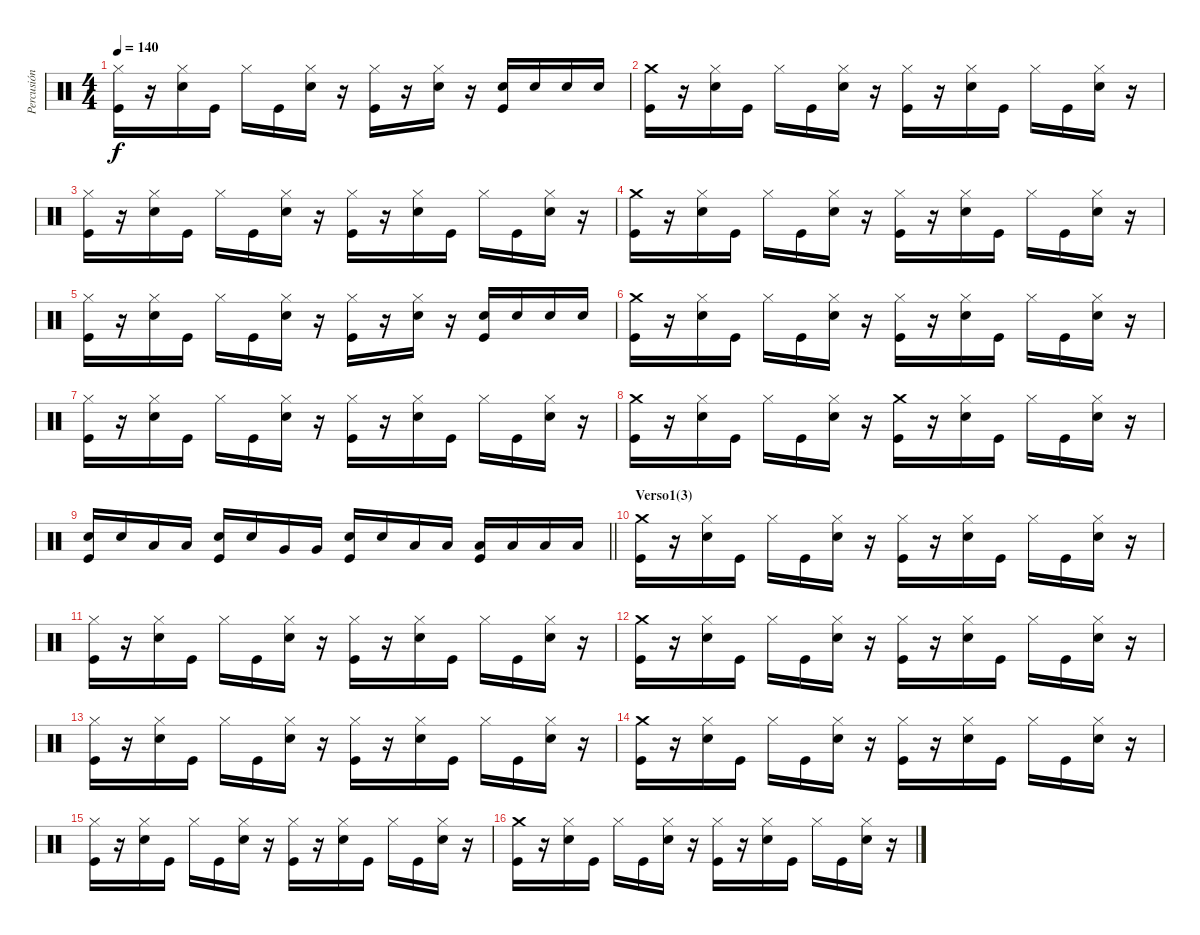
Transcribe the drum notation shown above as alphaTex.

\track ("Percusión" "Percusión") {instrument percussion}
\staff {score}
\articulation defaults
\ts (4 4)
\tempo 140
\clef neutral
\ks c
("Hi-Hat (closed)" "Kick (hit)").16{dy f} r.16 ("Hi-Hat (closed)" "Snare (hit) 2").16 "Kick (hit)".16 "Hi-Hat (closed)".16 "Kick (hit)".16 ("Hi-Hat (closed)" "Snare (hit) 2").16 r.16 ("Hi-Hat (closed)" "Kick (hit)").16 r.16 ("Hi-Hat (closed)" "Snare (hit) 2").16 r.16 ("Snare (hit) 2" "Kick (hit)").16 "Snare (hit) 2".16 "Snare (hit) 2".16 "Snare (hit) 2".16 |
("Crash medium (hit)" "Kick (hit)").16 r.16 ("Hi-Hat (closed)" "Snare (hit) 2").16 "Kick (hit)".16 "Hi-Hat (closed)".16 "Kick (hit)".16 ("Hi-Hat (closed)" "Snare (hit) 2").16 r.16 ("Hi-Hat (closed)" "Kick (hit)").16 r.16 ("Hi-Hat (closed)" "Snare (hit) 2").16 "Kick (hit)".16 "Hi-Hat (closed)".16 "Kick (hit)".16 ("Hi-Hat (closed)" "Snare (hit) 2").16 r.16 |
("Hi-Hat (closed)" "Kick (hit)").16 r.16 ("Hi-Hat (closed)" "Snare (hit) 2").16 "Kick (hit)".16 "Hi-Hat (closed)".16 "Kick (hit)".16 ("Hi-Hat (closed)" "Snare (hit) 2").16 r.16 ("Hi-Hat (closed)" "Kick (hit)").16 r.16 ("Hi-Hat (closed)" "Snare (hit) 2").16 "Kick (hit)".16 "Hi-Hat (closed)".16 "Kick (hit)".16 ("Hi-Hat (closed)" "Snare (hit) 2").16 r.16 |
("Crash medium (hit)" "Kick (hit)").16 r.16 ("Hi-Hat (closed)" "Snare (hit) 2").16 "Kick (hit)".16 "Hi-Hat (closed)".16 "Kick (hit)".16 ("Hi-Hat (closed)" "Snare (hit) 2").16 r.16 ("Hi-Hat (closed)" "Kick (hit)").16 r.16 ("Hi-Hat (closed)" "Snare (hit) 2").16 "Kick (hit)".16 "Hi-Hat (closed)".16 "Kick (hit)".16 ("Hi-Hat (closed)" "Snare (hit) 2").16 r.16 |
("Hi-Hat (closed)" "Kick (hit)").16 r.16 ("Hi-Hat (closed)" "Snare (hit) 2").16 "Kick (hit)".16 "Hi-Hat (closed)".16 "Kick (hit)".16 ("Hi-Hat (closed)" "Snare (hit) 2").16 r.16 ("Hi-Hat (closed)" "Kick (hit)").16 r.16 ("Hi-Hat (closed)" "Snare (hit) 2").16 r.16 ("Snare (hit) 2" "Kick (hit)").16 "Snare (hit) 2".16 "Snare (hit) 2".16 "Snare (hit) 2".16 |
("Crash medium (hit)" "Kick (hit)").16 r.16 ("Hi-Hat (closed)" "Snare (hit) 2").16 "Kick (hit)".16 "Hi-Hat (closed)".16 "Kick (hit)".16 ("Hi-Hat (closed)" "Snare (hit) 2").16 r.16 ("Hi-Hat (closed)" "Kick (hit)").16 r.16 ("Hi-Hat (closed)" "Snare (hit) 2").16 "Kick (hit)".16 "Hi-Hat (closed)".16 "Kick (hit)".16 ("Hi-Hat (closed)" "Snare (hit) 2").16 r.16 |
("Hi-Hat (closed)" "Kick (hit)").16 r.16 ("Hi-Hat (closed)" "Snare (hit) 2").16 "Kick (hit)".16 "Hi-Hat (closed)".16 "Kick (hit)".16 ("Hi-Hat (closed)" "Snare (hit) 2").16 r.16 ("Hi-Hat (closed)" "Kick (hit)").16 r.16 ("Hi-Hat (closed)" "Snare (hit) 2").16 "Kick (hit)".16 "Hi-Hat (closed)".16 "Kick (hit)".16 ("Hi-Hat (closed)" "Snare (hit) 2").16 r.16 |
("Crash medium (hit)" "Kick (hit)").16 r.16 ("Hi-Hat (closed)" "Snare (hit) 2").16 "Kick (hit)".16 "Hi-Hat (closed)".16 "Kick (hit)".16 ("Hi-Hat (closed)" "Snare (hit) 2").16 r.16 ("Crash medium (hit)" "Kick (hit)").16 r.16 ("Hi-Hat (closed)" "Snare (hit) 2").16 "Kick (hit)".16 "Hi-Hat (closed)".16 "Kick (hit)".16 ("Hi-Hat (closed)" "Snare (hit) 2").16 r.16 |
\barLineRight lightlight
("Snare (hit) 2" "Kick (hit)").16 "Snare (hit) 2".16 "Low Tom (hit)".16 "Low Tom (hit)".16 ("Snare (hit) 2" "Kick (hit)").16 "Snare (hit) 2".16 "Very Low Tom (hit)".16 "Very Low Tom (hit)".16 ("Snare (hit) 2" "Kick (hit)").16 "Snare (hit) 2".16 "Low Floor Tom (hit)".16 "Low Floor Tom (hit)".16 ("Low Floor Tom (hit)" "Kick (hit)").16 "Low Floor Tom (hit)".16 "Low Floor Tom (hit)".16 "Low Floor Tom (hit)".16 |
\section ("" "Verso1(3)")
("Crash medium (hit)" "Kick (hit)").16 r.16 ("Hi-Hat (closed)" "Snare (hit) 2").16 "Kick (hit)".16 "Hi-Hat (closed)".16 "Kick (hit)".16 ("Hi-Hat (closed)" "Snare (hit) 2").16 r.16 ("Hi-Hat (closed)" "Kick (hit)").16 r.16 ("Hi-Hat (closed)" "Snare (hit) 2").16 "Kick (hit)".16 "Hi-Hat (closed)".16 "Kick (hit)".16 ("Hi-Hat (closed)" "Snare (hit) 2").16 r.16 |
("Hi-Hat (closed)" "Kick (hit)").16 r.16 ("Hi-Hat (closed)" "Snare (hit) 2").16 "Kick (hit)".16 "Hi-Hat (closed)".16 "Kick (hit)".16 ("Hi-Hat (closed)" "Snare (hit) 2").16 r.16 ("Hi-Hat (closed)" "Kick (hit)").16 r.16 ("Hi-Hat (closed)" "Snare (hit) 2").16 "Kick (hit)".16 "Hi-Hat (closed)".16 "Kick (hit)".16 ("Hi-Hat (closed)" "Snare (hit) 2").16 r.16 |
("Crash medium (hit)" "Kick (hit)").16 r.16 ("Hi-Hat (closed)" "Snare (hit) 2").16 "Kick (hit)".16 "Hi-Hat (closed)".16 "Kick (hit)".16 ("Hi-Hat (closed)" "Snare (hit) 2").16 r.16 ("Hi-Hat (closed)" "Kick (hit)").16 r.16 ("Hi-Hat (closed)" "Snare (hit) 2").16 "Kick (hit)".16 "Hi-Hat (closed)".16 "Kick (hit)".16 ("Hi-Hat (closed)" "Snare (hit) 2").16 r.16 |
("Hi-Hat (closed)" "Kick (hit)").16 r.16 ("Hi-Hat (closed)" "Snare (hit) 2").16 "Kick (hit)".16 "Hi-Hat (closed)".16 "Kick (hit)".16 ("Hi-Hat (closed)" "Snare (hit) 2").16 r.16 ("Hi-Hat (closed)" "Kick (hit)").16 r.16 ("Hi-Hat (closed)" "Snare (hit) 2").16 "Kick (hit)".16 "Hi-Hat (closed)".16 "Kick (hit)".16 ("Hi-Hat (closed)" "Snare (hit) 2").16 r.16 |
("Crash medium (hit)" "Kick (hit)").16 r.16 ("Hi-Hat (closed)" "Snare (hit) 2").16 "Kick (hit)".16 "Hi-Hat (closed)".16 "Kick (hit)".16 ("Hi-Hat (closed)" "Snare (hit) 2").16 r.16 ("Hi-Hat (closed)" "Kick (hit)").16 r.16 ("Hi-Hat (closed)" "Snare (hit) 2").16 "Kick (hit)".16 "Hi-Hat (closed)".16 "Kick (hit)".16 ("Hi-Hat (closed)" "Snare (hit) 2").16 r.16 |
("Hi-Hat (closed)" "Kick (hit)").16 r.16 ("Hi-Hat (closed)" "Snare (hit) 2").16 "Kick (hit)".16 "Hi-Hat (closed)".16 "Kick (hit)".16 ("Hi-Hat (closed)" "Snare (hit) 2").16 r.16 ("Hi-Hat (closed)" "Kick (hit)").16 r.16 ("Hi-Hat (closed)" "Snare (hit) 2").16 "Kick (hit)".16 "Hi-Hat (closed)".16 "Kick (hit)".16 ("Hi-Hat (closed)" "Snare (hit) 2").16 r.16 |
("Crash medium (hit)" "Kick (hit)").16 r.16 ("Hi-Hat (closed)" "Snare (hit) 2").16 "Kick (hit)".16 "Hi-Hat (closed)".16 "Kick (hit)".16 ("Hi-Hat (closed)" "Snare (hit) 2").16 r.16 ("Hi-Hat (closed)" "Kick (hit)").16 r.16 ("Hi-Hat (closed)" "Snare (hit) 2").16 "Kick (hit)".16 "Hi-Hat (closed)".16 "Kick (hit)".16 ("Hi-Hat (closed)" "Snare (hit) 2").16 r.16
